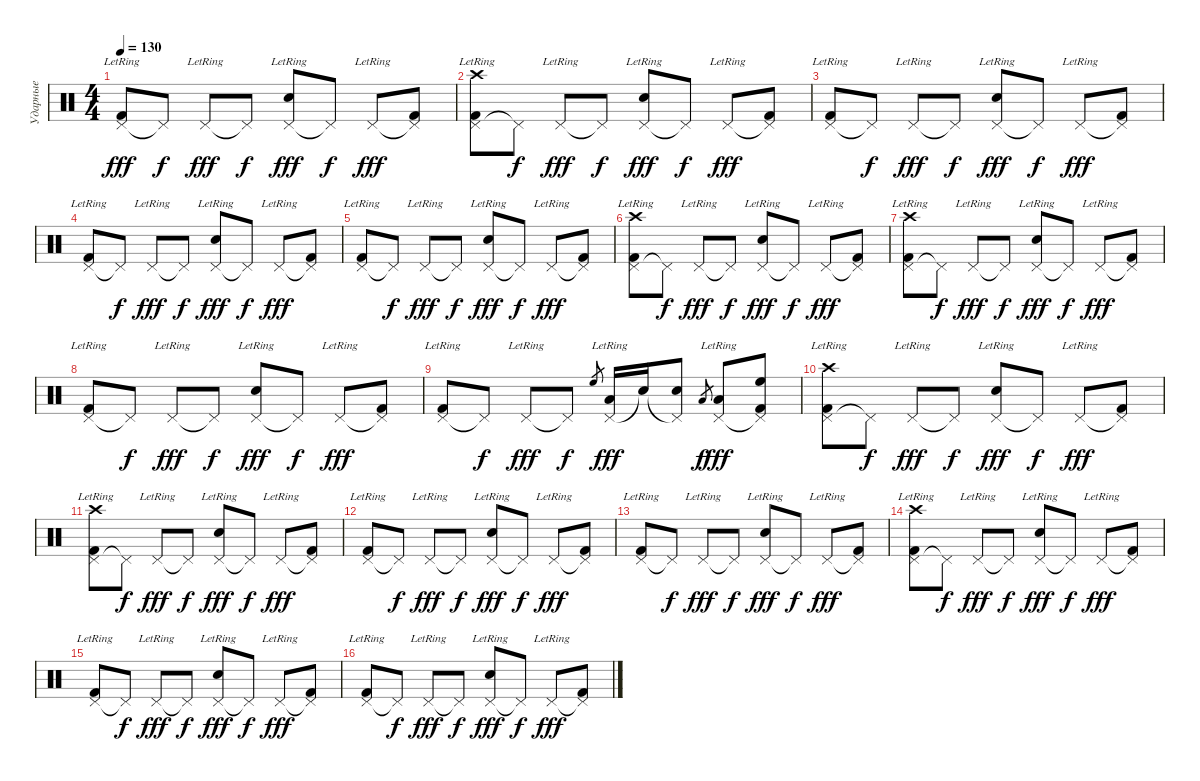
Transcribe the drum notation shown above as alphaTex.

\track ("Ударные" "Ударные") {instrument percussion}
\staff {score}
\articulation defaults
\ts (4 4)
\tempo 130
\clef neutral
\ks c
("Pedal Hi-Hat (hit)"{lr} "Kick (hit) 2").8{dy fff} "Pedal Hi-Hat (hit)"{t}.8{dy f} "Pedal Hi-Hat (hit)"{lr}.8{dy fff} "Pedal Hi-Hat (hit)"{t}.8{dy f} ("Pedal Hi-Hat (hit)"{lr} "Snare (hit) 2").8{dy fff} "Pedal Hi-Hat (hit)"{t}.8{dy f} "Pedal Hi-Hat (hit)"{lr}.8{dy fff} ("Pedal Hi-Hat (hit)"{t} "Kick (hit) 2").8 |
("Pedal Hi-Hat (hit)"{lr} "Kick (hit) 2" "Crash high (hit)"{lr}).8 "Pedal Hi-Hat (hit)"{t}.8{dy f} "Pedal Hi-Hat (hit)"{lr}.8{dy fff} "Pedal Hi-Hat (hit)"{t}.8{dy f} ("Pedal Hi-Hat (hit)"{lr} "Snare (hit) 2").8{dy fff} "Pedal Hi-Hat (hit)"{t}.8{dy f} "Pedal Hi-Hat (hit)"{lr}.8{dy fff} ("Pedal Hi-Hat (hit)"{t} "Kick (hit) 2").8 |
("Pedal Hi-Hat (hit)"{lr} "Kick (hit) 2").8 "Pedal Hi-Hat (hit)"{t}.8{dy f} "Pedal Hi-Hat (hit)"{lr}.8{dy fff} "Pedal Hi-Hat (hit)"{t}.8{dy f} ("Pedal Hi-Hat (hit)"{lr} "Snare (hit) 2").8{dy fff} "Pedal Hi-Hat (hit)"{t}.8{dy f} "Pedal Hi-Hat (hit)"{lr}.8{dy fff} ("Pedal Hi-Hat (hit)"{t} "Kick (hit) 2").8 |
("Pedal Hi-Hat (hit)"{lr} "Kick (hit) 2").8 "Pedal Hi-Hat (hit)"{t}.8{dy f} "Pedal Hi-Hat (hit)"{lr}.8{dy fff} "Pedal Hi-Hat (hit)"{t}.8{dy f} ("Pedal Hi-Hat (hit)"{lr} "Snare (hit) 2").8{dy fff} "Pedal Hi-Hat (hit)"{t}.8{dy f} "Pedal Hi-Hat (hit)"{lr}.8{dy fff} ("Pedal Hi-Hat (hit)"{t} "Kick (hit) 2").8 |
("Pedal Hi-Hat (hit)"{lr} "Kick (hit) 2").8 "Pedal Hi-Hat (hit)"{t}.8{dy f} "Pedal Hi-Hat (hit)"{lr}.8{dy fff} "Pedal Hi-Hat (hit)"{t}.8{dy f} ("Pedal Hi-Hat (hit)"{lr} "Snare (hit) 2").8{dy fff} "Pedal Hi-Hat (hit)"{t}.8{dy f} "Pedal Hi-Hat (hit)"{lr}.8{dy fff} ("Pedal Hi-Hat (hit)"{t} "Kick (hit) 2").8 |
("Pedal Hi-Hat (hit)"{lr} "Kick (hit) 2" "Crash high (hit)"{lr}).8 "Pedal Hi-Hat (hit)"{t}.8{dy f} "Pedal Hi-Hat (hit)"{lr}.8{dy fff} "Pedal Hi-Hat (hit)"{t}.8{dy f} ("Pedal Hi-Hat (hit)"{lr} "Snare (hit) 2").8{dy fff} "Pedal Hi-Hat (hit)"{t}.8{dy f} "Pedal Hi-Hat (hit)"{lr}.8{dy fff} ("Pedal Hi-Hat (hit)"{t} "Kick (hit) 2").8 |
("Pedal Hi-Hat (hit)"{lr} "Kick (hit) 2" "Crash high (hit)"{lr}).8 "Pedal Hi-Hat (hit)"{t}.8{dy f} "Pedal Hi-Hat (hit)"{lr}.8{dy fff} "Pedal Hi-Hat (hit)"{t}.8{dy f} ("Pedal Hi-Hat (hit)"{lr} "Snare (hit) 2").8{dy fff} "Pedal Hi-Hat (hit)"{t}.8{dy f} "Pedal Hi-Hat (hit)"{lr}.8{dy fff} ("Pedal Hi-Hat (hit)"{t} "Kick (hit) 2").8 |
("Pedal Hi-Hat (hit)"{lr} "Kick (hit) 2").8 "Pedal Hi-Hat (hit)"{t}.8{dy f} "Pedal Hi-Hat (hit)"{lr}.8{dy fff} "Pedal Hi-Hat (hit)"{t}.8{dy f} ("Pedal Hi-Hat (hit)"{lr} "Snare (hit) 2").8{dy fff} "Pedal Hi-Hat (hit)"{t}.8{dy f} "Pedal Hi-Hat (hit)"{lr}.8{dy fff} ("Pedal Hi-Hat (hit)"{t} "Kick (hit) 2").8 |
("Pedal Hi-Hat (hit)"{lr} "Kick (hit) 2").8 "Pedal Hi-Hat (hit)"{t}.8{dy f} "Pedal Hi-Hat (hit)"{lr}.8{dy fff} "Pedal Hi-Hat (hit)"{t}.8{dy f} "High Floor Tom (hit)".8{gr} ("Pedal Hi-Hat (hit)"{lr} "Low Floor Tom (hit)").16{dy fff} "Snare (hit)"{t}.16 ("Pedal Hi-Hat (hit)"{t} "Snare (hit) 2").8 "Low Floor Tom (hit)".8{gr dy f} ("Pedal Hi-Hat (hit)"{lr} "Low Floor Tom (hit)").8{dy fff} ("Pedal Hi-Hat (hit)"{t} "Kick (hit) 2" "High Floor Tom (hit)").8 |
("Pedal Hi-Hat (hit)"{lr} "Kick (hit) 2" "Crash high (hit)"{lr}).8 "Pedal Hi-Hat (hit)"{t}.8{dy f} "Pedal Hi-Hat (hit)"{lr}.8{dy fff} "Pedal Hi-Hat (hit)"{t}.8{dy f} ("Pedal Hi-Hat (hit)"{lr} "Snare (hit) 2").8{dy fff} "Pedal Hi-Hat (hit)"{t}.8{dy f} "Pedal Hi-Hat (hit)"{lr}.8{dy fff} ("Pedal Hi-Hat (hit)"{t} "Kick (hit) 2").8 |
("Pedal Hi-Hat (hit)"{lr} "Kick (hit) 2" "Crash high (hit)"{lr}).8 "Pedal Hi-Hat (hit)"{t}.8{dy f} "Pedal Hi-Hat (hit)"{lr}.8{dy fff} "Pedal Hi-Hat (hit)"{t}.8{dy f} ("Pedal Hi-Hat (hit)"{lr} "Snare (hit) 2").8{dy fff} "Pedal Hi-Hat (hit)"{t}.8{dy f} "Pedal Hi-Hat (hit)"{lr}.8{dy fff} ("Pedal Hi-Hat (hit)"{t} "Kick (hit) 2").8 |
("Pedal Hi-Hat (hit)"{lr} "Kick (hit) 2").8 "Pedal Hi-Hat (hit)"{t}.8{dy f} "Pedal Hi-Hat (hit)"{lr}.8{dy fff} "Pedal Hi-Hat (hit)"{t}.8{dy f} ("Pedal Hi-Hat (hit)"{lr} "Snare (hit) 2").8{dy fff} "Pedal Hi-Hat (hit)"{t}.8{dy f} "Pedal Hi-Hat (hit)"{lr}.8{dy fff} ("Pedal Hi-Hat (hit)"{t} "Kick (hit) 2").8 |
("Pedal Hi-Hat (hit)"{lr} "Kick (hit) 2").8 "Pedal Hi-Hat (hit)"{t}.8{dy f} "Pedal Hi-Hat (hit)"{lr}.8{dy fff} "Pedal Hi-Hat (hit)"{t}.8{dy f} ("Pedal Hi-Hat (hit)"{lr} "Snare (hit) 2").8{dy fff} "Pedal Hi-Hat (hit)"{t}.8{dy f} "Pedal Hi-Hat (hit)"{lr}.8{dy fff} ("Pedal Hi-Hat (hit)"{t} "Kick (hit) 2").8 |
("Pedal Hi-Hat (hit)"{lr} "Kick (hit) 2" "Crash high (hit)"{lr}).8 "Pedal Hi-Hat (hit)"{t}.8{dy f} "Pedal Hi-Hat (hit)"{lr}.8{dy fff} "Pedal Hi-Hat (hit)"{t}.8{dy f} ("Pedal Hi-Hat (hit)"{lr} "Snare (hit) 2").8{dy fff} "Pedal Hi-Hat (hit)"{t}.8{dy f} "Pedal Hi-Hat (hit)"{lr}.8{dy fff} ("Pedal Hi-Hat (hit)"{t} "Kick (hit) 2").8 |
("Pedal Hi-Hat (hit)"{lr} "Kick (hit) 2").8 "Pedal Hi-Hat (hit)"{t}.8{dy f} "Pedal Hi-Hat (hit)"{lr}.8{dy fff} "Pedal Hi-Hat (hit)"{t}.8{dy f} ("Pedal Hi-Hat (hit)"{lr} "Snare (hit) 2").8{dy fff} "Pedal Hi-Hat (hit)"{t}.8{dy f} "Pedal Hi-Hat (hit)"{lr}.8{dy fff} ("Pedal Hi-Hat (hit)"{t} "Kick (hit) 2").8 |
("Pedal Hi-Hat (hit)"{lr} "Kick (hit) 2").8 "Pedal Hi-Hat (hit)"{t}.8{dy f} "Pedal Hi-Hat (hit)"{lr}.8{dy fff} "Pedal Hi-Hat (hit)"{t}.8{dy f} ("Pedal Hi-Hat (hit)"{lr} "Snare (hit) 2").8{dy fff} "Pedal Hi-Hat (hit)"{t}.8{dy f} "Pedal Hi-Hat (hit)"{lr}.8{dy fff} ("Pedal Hi-Hat (hit)"{t} "Kick (hit) 2").8
